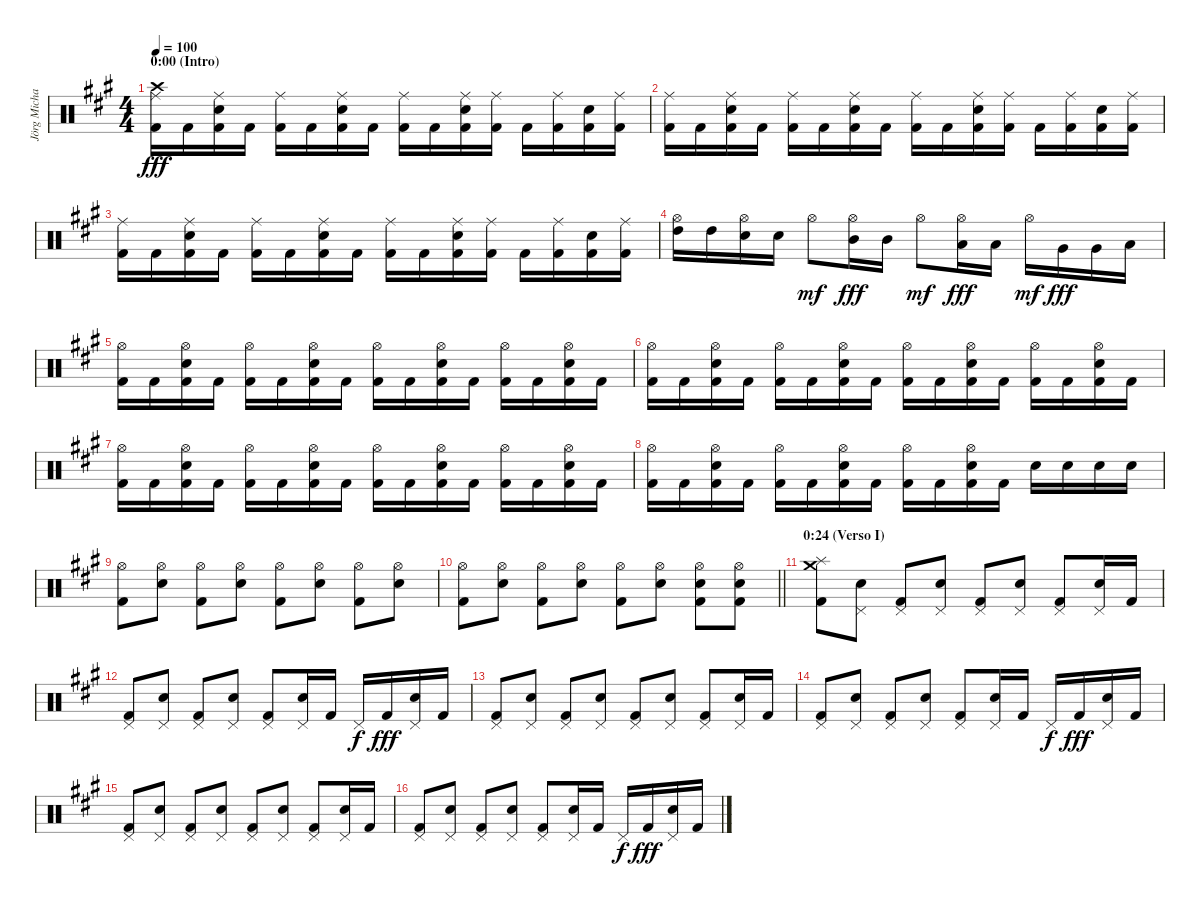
\track ("Jörg Michael (Batería)" "Jörg Micha") {instrument percussion}
\staff {score}
\articulation defaults
\ts (4 4)
\section ("" "0:00 (Intro)")
\tempo 100
\clef neutral
\ks a
("Crash high (hit)" "Ride (middle)" "Kick (hit) 2").16{dy fff} "Kick (hit) 2".16 ("Ride (middle)" "Snare (hit) 2" "Kick (hit) 2").16 "Kick (hit) 2".16 ("Ride (middle)" "Kick (hit) 2").16 "Kick (hit) 2".16 ("Ride (middle)" "Snare (hit) 2" "Kick (hit) 2").16 "Kick (hit) 2".16 ("Ride (middle)" "Kick (hit) 2").16 "Kick (hit) 2".16 ("Ride (middle)" "Snare (hit) 2" "Kick (hit) 2").16 ("Ride (middle)" "Kick (hit) 2").16 "Kick (hit) 2".16 ("Ride (middle)" "Kick (hit) 2").16 ("Snare (hit) 2" "Kick (hit) 2").16 ("Ride (middle)" "Kick (hit) 2").16 |
("Ride (middle)" "Kick (hit) 2").16 "Kick (hit) 2".16 ("Ride (middle)" "Snare (hit) 2" "Kick (hit) 2").16 "Kick (hit) 2".16 ("Ride (middle)" "Kick (hit) 2").16 "Kick (hit) 2".16 ("Ride (middle)" "Snare (hit) 2" "Kick (hit) 2").16 "Kick (hit) 2".16 ("Ride (middle)" "Kick (hit) 2").16 "Kick (hit) 2".16 ("Ride (middle)" "Snare (hit) 2" "Kick (hit) 2").16 ("Ride (middle)" "Kick (hit) 2").16 "Kick (hit) 2".16 ("Ride (middle)" "Kick (hit) 2").16 ("Snare (hit) 2" "Kick (hit) 2").16 ("Ride (middle)" "Kick (hit) 2").16 |
("Ride (middle)" "Kick (hit) 2").16 "Kick (hit) 2".16 ("Ride (middle)" "Snare (hit) 2" "Kick (hit) 2").16 "Kick (hit) 2".16 ("Ride (middle)" "Kick (hit) 2").16 "Kick (hit) 2".16 ("Ride (middle)" "Snare (hit) 2" "Kick (hit) 2").16 "Kick (hit) 2".16 ("Ride (middle)" "Kick (hit) 2").16 "Kick (hit) 2".16 ("Ride (middle)" "Snare (hit) 2" "Kick (hit) 2").16 ("Ride (middle)" "Kick (hit) 2").16 "Kick (hit) 2".16 ("Ride (middle)" "Kick (hit) 2").16 ("Snare (hit) 2" "Kick (hit) 2").16 ("Ride (middle)" "Kick (hit) 2").16 |
("Hi-Hat (open)" "High Tom (hit)").16 "High Tom (hit)".16 ("Hi-Hat (open)" "Snare (hit) 2").16 "Snare (hit) 2".16 "Hi-Hat (open)".8{dy mf} ("Hi-Hat (open)" "Mid Tom (hit)").16{dy fff} "Mid Tom (hit)".16 "Hi-Hat (open)".8{dy mf} ("Hi-Hat (open)" "Low Tom (hit)").16{dy fff} "Low Tom (hit)".16 "Hi-Hat (open)".16{dy mf} "Very Low Tom (hit)".16{dy fff} "Very Low Tom (hit)".16 "Low Floor Tom (hit)".16 |
("Hi-Hat (open)" "Kick (hit) 2").16 "Kick (hit) 2".16 ("Hi-Hat (open)" "Snare (hit) 2" "Kick (hit) 2").16 "Kick (hit) 2".16 ("Hi-Hat (open)" "Kick (hit) 2").16 "Kick (hit) 2".16 ("Hi-Hat (open)" "Snare (hit) 2" "Kick (hit) 2").16 "Kick (hit) 2".16 ("Hi-Hat (open)" "Kick (hit) 2").16 "Kick (hit) 2".16 ("Hi-Hat (open)" "Snare (hit) 2" "Kick (hit) 2").16 "Kick (hit) 2".16 ("Hi-Hat (open)" "Kick (hit) 2").16 "Kick (hit) 2".16 ("Hi-Hat (open)" "Snare (hit) 2" "Kick (hit) 2").16 "Kick (hit) 2".16 |
("Hi-Hat (open)" "Kick (hit) 2").16 "Kick (hit) 2".16 ("Hi-Hat (open)" "Snare (hit) 2" "Kick (hit) 2").16 "Kick (hit) 2".16 ("Hi-Hat (open)" "Kick (hit) 2").16 "Kick (hit) 2".16 ("Hi-Hat (open)" "Snare (hit) 2" "Kick (hit) 2").16 "Kick (hit) 2".16 ("Hi-Hat (open)" "Kick (hit) 2").16 "Kick (hit) 2".16 ("Hi-Hat (open)" "Snare (hit) 2" "Kick (hit) 2").16 "Kick (hit) 2".16 ("Hi-Hat (open)" "Kick (hit) 2").16 "Kick (hit) 2".16 ("Hi-Hat (open)" "Snare (hit) 2" "Kick (hit) 2").16 "Kick (hit) 2".16 |
("Hi-Hat (open)" "Kick (hit) 2").16 "Kick (hit) 2".16 ("Hi-Hat (open)" "Snare (hit) 2" "Kick (hit) 2").16 "Kick (hit) 2".16 ("Hi-Hat (open)" "Kick (hit) 2").16 "Kick (hit) 2".16 ("Hi-Hat (open)" "Snare (hit) 2" "Kick (hit) 2").16 "Kick (hit) 2".16 ("Hi-Hat (open)" "Kick (hit) 2").16 "Kick (hit) 2".16 ("Hi-Hat (open)" "Snare (hit) 2" "Kick (hit) 2").16 "Kick (hit) 2".16 ("Hi-Hat (open)" "Kick (hit) 2").16 "Kick (hit) 2".16 ("Hi-Hat (open)" "Snare (hit) 2" "Kick (hit) 2").16 "Kick (hit) 2".16 |
("Hi-Hat (open)" "Kick (hit) 2").16 "Kick (hit) 2".16 ("Hi-Hat (open)" "Snare (hit) 2" "Kick (hit) 2").16 "Kick (hit) 2".16 ("Hi-Hat (open)" "Kick (hit) 2").16 "Kick (hit) 2".16 ("Hi-Hat (open)" "Snare (hit) 2" "Kick (hit) 2").16 "Kick (hit) 2".16 ("Hi-Hat (open)" "Kick (hit) 2").16 "Kick (hit) 2".16 ("Hi-Hat (open)" "Snare (hit) 2" "Kick (hit) 2").16 "Kick (hit) 2".16 "Snare (hit) 2".16 "Snare (hit) 2".16 "Snare (hit) 2".16 "Snare (hit) 2".16 |
("Hi-Hat (open)" "Kick (hit) 2").8 ("Hi-Hat (open)" "Snare (hit) 2").8 ("Hi-Hat (open)" "Kick (hit) 2").8 ("Hi-Hat (open)" "Snare (hit) 2").8 ("Hi-Hat (open)" "Kick (hit) 2").8 ("Hi-Hat (open)" "Snare (hit) 2").8 ("Hi-Hat (open)" "Kick (hit) 2").8 ("Hi-Hat (open)" "Snare (hit) 2").8 |
\barLineRight lightlight
("Hi-Hat (open)" "Kick (hit) 2").8 ("Hi-Hat (open)" "Snare (hit) 2").8 ("Hi-Hat (open)" "Kick (hit) 2").8 ("Hi-Hat (open)" "Snare (hit) 2").8 ("Hi-Hat (open)" "Kick (hit) 2").8 ("Hi-Hat (open)" "Snare (hit) 2").8 ("Hi-Hat (open)" "Snare (hit) 2" "Kick (hit) 2").8 ("Hi-Hat (open)" "Snare (hit) 2" "Kick (hit) 2").8 |
\section ("" "0:24 (Verso I)")
("Crash medium (hit)" "Splash (hit)" "Kick (hit) 2").8 ("Pedal Hi-Hat (hit)" "Snare (hit) 2").8 ("Pedal Hi-Hat (hit)" "Kick (hit) 2").8 ("Pedal Hi-Hat (hit)" "Snare (hit) 2").8 ("Pedal Hi-Hat (hit)" "Kick (hit) 2").8 ("Pedal Hi-Hat (hit)" "Snare (hit) 2").8 ("Pedal Hi-Hat (hit)" "Kick (hit) 2").8 ("Pedal Hi-Hat (hit)" "Snare (hit) 2").16 "Kick (hit) 2".16 |
("Pedal Hi-Hat (hit)" "Kick (hit) 2").8 ("Pedal Hi-Hat (hit)" "Snare (hit) 2").8 ("Pedal Hi-Hat (hit)" "Kick (hit) 2").8 ("Pedal Hi-Hat (hit)" "Snare (hit) 2").8 ("Pedal Hi-Hat (hit)" "Kick (hit) 2").8 ("Pedal Hi-Hat (hit)" "Snare (hit) 2").16 "Kick (hit) 2".16 "Pedal Hi-Hat (hit)".16{dy f} "Kick (hit) 2".16{dy fff} ("Pedal Hi-Hat (hit)" "Snare (hit) 2").16 "Kick (hit) 2".16 |
("Pedal Hi-Hat (hit)" "Kick (hit) 2").8 ("Pedal Hi-Hat (hit)" "Snare (hit) 2").8 ("Pedal Hi-Hat (hit)" "Kick (hit) 2").8 ("Pedal Hi-Hat (hit)" "Snare (hit) 2").8 ("Pedal Hi-Hat (hit)" "Kick (hit) 2").8 ("Pedal Hi-Hat (hit)" "Snare (hit) 2").8 ("Pedal Hi-Hat (hit)" "Kick (hit) 2").8 ("Pedal Hi-Hat (hit)" "Snare (hit) 2").16 "Kick (hit) 2".16 |
("Pedal Hi-Hat (hit)" "Kick (hit) 2").8 ("Pedal Hi-Hat (hit)" "Snare (hit) 2").8 ("Pedal Hi-Hat (hit)" "Kick (hit) 2").8 ("Pedal Hi-Hat (hit)" "Snare (hit) 2").8 ("Pedal Hi-Hat (hit)" "Kick (hit) 2").8 ("Pedal Hi-Hat (hit)" "Snare (hit) 2").16 "Kick (hit) 2".16 "Pedal Hi-Hat (hit)".16{dy f} "Kick (hit) 2".16{dy fff} ("Pedal Hi-Hat (hit)" "Snare (hit) 2").16 "Kick (hit) 2".16 |
("Pedal Hi-Hat (hit)" "Kick (hit) 2").8 ("Pedal Hi-Hat (hit)" "Snare (hit) 2").8 ("Pedal Hi-Hat (hit)" "Kick (hit) 2").8 ("Pedal Hi-Hat (hit)" "Snare (hit) 2").8 ("Pedal Hi-Hat (hit)" "Kick (hit) 2").8 ("Pedal Hi-Hat (hit)" "Snare (hit) 2").8 ("Pedal Hi-Hat (hit)" "Kick (hit) 2").8 ("Pedal Hi-Hat (hit)" "Snare (hit) 2").16 "Kick (hit) 2".16 |
("Pedal Hi-Hat (hit)" "Kick (hit) 2").8 ("Pedal Hi-Hat (hit)" "Snare (hit) 2").8 ("Pedal Hi-Hat (hit)" "Kick (hit) 2").8 ("Pedal Hi-Hat (hit)" "Snare (hit) 2").8 ("Pedal Hi-Hat (hit)" "Kick (hit) 2").8 ("Pedal Hi-Hat (hit)" "Snare (hit) 2").16 "Kick (hit) 2".16 "Pedal Hi-Hat (hit)".16{dy f} "Kick (hit) 2".16{dy fff} ("Pedal Hi-Hat (hit)" "Snare (hit) 2").16 "Kick (hit) 2".16
